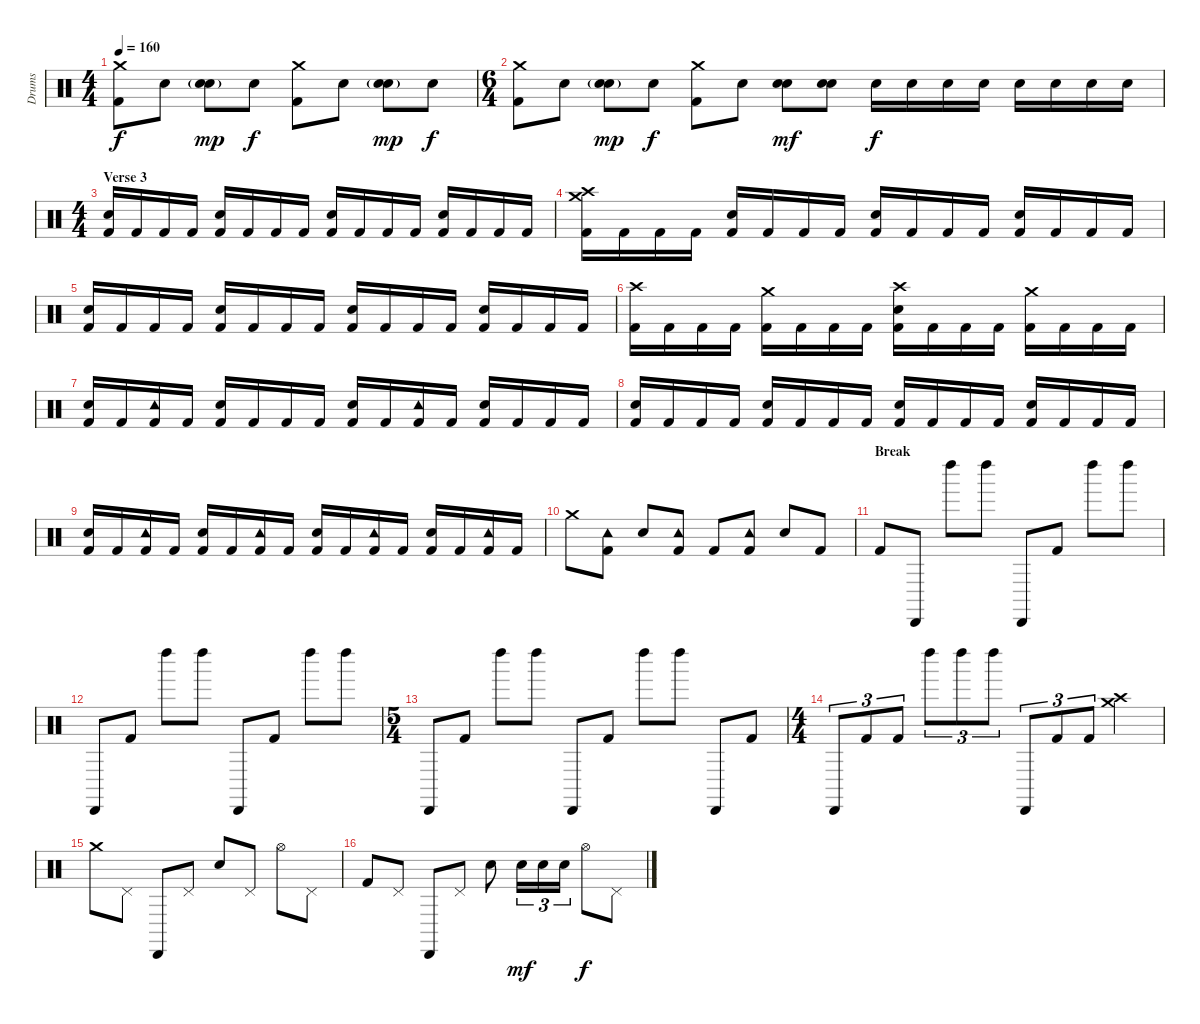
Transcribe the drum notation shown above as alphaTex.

\track ("Drums" "Drums") {instrument percussion}
\staff {score}
\articulation defaults
\ts (4 4)
\tempo 160
\clef neutral
\ks c
("Crash medium (hit)" "Kick (hit) 2").8{dy f} "Snare (hit) 2".8 ("Hand Clap (hit)"{g} "Snare (hit) 2").8{dy mp} "Snare (hit) 2".8{dy f} ("Crash medium (hit)" "Kick (hit) 2").8 "Snare (hit) 2".8 ("Hand Clap (hit)"{g} "Snare (hit) 2").8{dy mp} "Snare (hit) 2".8{dy f} |
\ts (6 4)
("Crash medium (hit)" "Kick (hit) 2").8 "Snare (hit) 2".8 ("Hand Clap (hit)"{g} "Snare (hit) 2").8{dy mp} "Snare (hit) 2".8{dy f} ("Crash medium (hit)" "Kick (hit) 2").8 "Snare (hit) 2".8 ("Hand Clap (hit)" "Snare (hit) 2").8{dy mf} ("Hand Clap (hit)" "Snare (hit) 2").8 "Snare (hit) 2".16{dy f} "Snare (hit) 2".16 "Snare (hit) 2".16 "Snare (hit) 2".16 "Snare (hit) 2".16 "Snare (hit) 2".16 "Snare (hit) 2".16 "Snare (hit) 2".16 |
\ts (4 4)
\section ("" "Verse 3")
("Snare (hit) 2" "Kick (hit) 2").16 "Kick (hit) 2".16 "Kick (hit) 2".16 "Kick (hit) 2".16 ("Snare (hit) 2" "Kick (hit) 2").16 "Kick (hit) 2".16 "Kick (hit) 2".16 "Kick (hit) 2".16 ("Snare (hit) 2" "Kick (hit) 2").16 "Kick (hit) 2".16 "Kick (hit) 2".16 "Kick (hit) 2".16 ("Snare (hit) 2" "Kick (hit) 2").16 "Kick (hit) 2".16 "Kick (hit) 2".16 "Kick (hit) 2".16 |
("Crash medium (hit)" "Crash high (hit)" "Kick (hit) 2").16 "Kick (hit) 2".16 "Kick (hit) 2".16 "Kick (hit) 2".16 ("Snare (hit) 2" "Kick (hit) 2").16 "Kick (hit) 2".16 "Kick (hit) 2".16 "Kick (hit) 2".16 ("Snare (hit) 2" "Kick (hit) 2").16 "Kick (hit) 2".16 "Kick (hit) 2".16 "Kick (hit) 2".16 ("Snare (hit) 2" "Kick (hit) 2").16 "Kick (hit) 2".16 "Kick (hit) 2".16 "Kick (hit) 2".16 |
("Snare (hit) 2" "Kick (hit) 2").16 "Kick (hit) 2".16 "Kick (hit) 2".16 "Kick (hit) 2".16 ("Snare (hit) 2" "Kick (hit) 2").16 "Kick (hit) 2".16 "Kick (hit) 2".16 "Kick (hit) 2".16 ("Snare (hit) 2" "Kick (hit) 2").16 "Kick (hit) 2".16 "Kick (hit) 2".16 "Kick (hit) 2".16 ("Snare (hit) 2" "Kick (hit) 2").16 "Kick (hit) 2".16 "Kick (hit) 2".16 "Kick (hit) 2".16 |
("Crash high (hit)" "Kick (hit) 2").16 "Kick (hit) 2".16 "Kick (hit) 2".16 "Kick (hit) 2".16 ("Crash medium (hit)" "Kick (hit) 2").16 "Kick (hit) 2".16 "Kick (hit) 2".16 "Kick (hit) 2".16 ("Crash high (hit)" "Snare (hit) 2" "Kick (hit) 2").16 "Kick (hit) 2".16 "Kick (hit) 2".16 "Kick (hit) 2".16 ("Crash medium (hit)" "Kick (hit) 2").16 "Kick (hit) 2".16 "Kick (hit) 2".16 "Kick (hit) 2".16 |
("Snare (hit) 2" "Kick (hit) 2").16 "Kick (hit) 2".16 ("Tambourine (hit)" "Kick (hit) 2").16 "Kick (hit) 2".16 ("Snare (hit) 2" "Kick (hit) 2").16 "Kick (hit) 2".16 "Kick (hit) 2".16 "Kick (hit) 2".16 ("Snare (hit) 2" "Kick (hit) 2").16 "Kick (hit) 2".16 ("Tambourine (hit)" "Kick (hit) 2").16 "Kick (hit) 2".16 ("Snare (hit) 2" "Kick (hit) 2").16 "Kick (hit) 2".16 "Kick (hit) 2".16 "Kick (hit) 2".16 |
("Snare (hit) 2" "Kick (hit) 2").16 "Kick (hit) 2".16 "Kick (hit) 2".16 "Kick (hit) 2".16 ("Snare (hit) 2" "Kick (hit) 2").16 "Kick (hit) 2".16 "Kick (hit) 2".16 "Kick (hit) 2".16 ("Snare (hit) 2" "Kick (hit) 2").16 "Kick (hit) 2".16 "Kick (hit) 2".16 "Kick (hit) 2".16 ("Snare (hit) 2" "Kick (hit) 2").16 "Kick (hit) 2".16 "Kick (hit) 2".16 "Kick (hit) 2".16 |
("Snare (hit) 2" "Kick (hit) 2").16 "Kick (hit) 2".16 ("Tambourine (hit)" "Kick (hit) 2").16 "Kick (hit) 2".16 ("Snare (hit) 2" "Kick (hit) 2").16 "Kick (hit) 2".16 ("Tambourine (hit)" "Kick (hit) 2").16 "Kick (hit) 2".16 ("Snare (hit) 2" "Kick (hit) 2").16 "Kick (hit) 2".16 ("Tambourine (hit)" "Kick (hit) 2").16 "Kick (hit) 2".16 ("Snare (hit) 2" "Kick (hit) 2").16 "Kick (hit) 2".16 ("Tambourine (hit)" "Kick (hit) 2").16 "Kick (hit) 2".16 |
"Crash medium (hit)".8 ("Tambourine (hit)" "Kick (hit) 2").8 "Snare (hit) 2".8 ("Tambourine (hit)" "Kick (hit) 2").8 "Kick (hit) 2".8 ("Tambourine (hit)" "Kick (hit) 2").8 "Snare (hit) 2".8 "Kick (hit) 2".8 |
\section ("" "Break")
"Kick (hit) 2".8 "Cabasa (hit)".8 "Left Maraca (hit)".8 "Left Maraca (hit)".8 "Cabasa (hit)".8 "Kick (hit) 2".8 "Left Maraca (hit)".8 "Left Maraca (hit)".8 |
"Cabasa (hit)".8 "Kick (hit) 2".8 "Left Maraca (hit)".8 "Left Maraca (hit)".8 "Cabasa (hit)".8 "Kick (hit) 2".8 "Left Maraca (hit)".8 "Left Maraca (hit)".8 |
\ts (5 4)
"Cabasa (hit)".8 "Kick (hit) 2".8 "Left Maraca (hit)".8 "Left Maraca (hit)".8 "Cabasa (hit)".8 "Kick (hit) 2".8 "Left Maraca (hit)".8 "Left Maraca (hit)".8 "Cabasa (hit)".8 "Kick (hit) 2".8 |
\ts (4 4)
"Cabasa (hit)".8{tu (3 2)} "Kick (hit) 2".8{tu (3 2)} "Kick (hit) 2".8{tu (3 2)} "Left Maraca (hit)".8{tu (3 2)} "Left Maraca (hit)".8{tu (3 2)} "Left Maraca (hit)".8{tu (3 2)} "Cabasa (hit)".8{tu (3 2)} "Kick (hit) 2".8{tu (3 2)} "Kick (hit) 2".8{tu (3 2)} ("Crash medium (hit)" "Crash high (hit)").4 |
"Crash medium (hit)".8 "Pedal Hi-Hat (hit)".8 "Cabasa (hit)".8 "Pedal Hi-Hat (hit)".8 "Snare (hit) 2".8 "Pedal Hi-Hat (hit)".8 "Hi-Hat (open)".8 "Pedal Hi-Hat (hit)".8 |
"Kick (hit) 2".8 "Pedal Hi-Hat (hit)".8 "Cabasa (hit)".8 "Pedal Hi-Hat (hit)".8 "Snare (hit) 2".8 "Snare (hit) 2".16{tu (3 2) dy mf} "Snare (hit) 2".16{tu (3 2)} "Snare (hit) 2".16{tu (3 2)} "Hi-Hat (open)".8{dy f} "Pedal Hi-Hat (hit)".8
